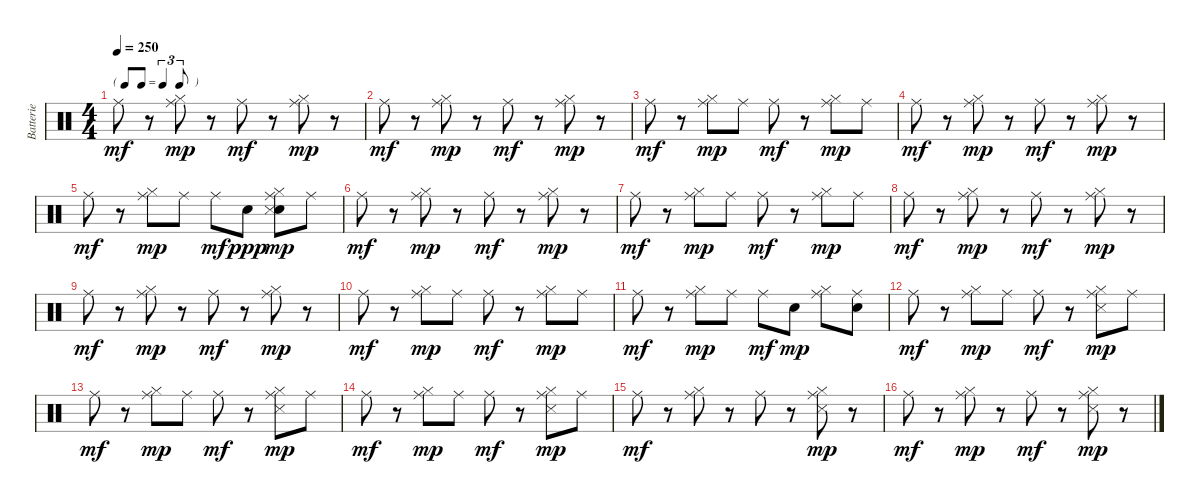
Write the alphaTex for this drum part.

\track ("Batterie" "Batterie") {instrument percussion}
\staff {score}
\articulation defaults
\ts (4 4)
\tf triplet8th
\tempo 250
\clef neutral
\ks c "Ride (middle)".8{dy mf}
r.8 ("Hi-Hat (closed)" "Ride (middle)").8{dy mp} r.8 "Ride (middle)".8{dy mf} r.8 ("Hi-Hat (closed)" "Ride (middle)").8{dy mp} r.8 |
"Ride (middle)".8{dy mf} r.8 ("Hi-Hat (closed)" "Ride (middle)").8{dy mp} r.8 "Ride (middle)".8{dy mf} r.8 ("Hi-Hat (closed)" "Ride (middle)").8{dy mp} r.8 |
"Ride (middle)".8{dy mf} r.8 ("Hi-Hat (closed)" "Ride (middle)").8{dy mp} "Ride (middle)".8 "Ride (middle)".8{dy mf} r.8 ("Hi-Hat (closed)" "Ride (middle)").8{dy mp} "Ride (middle)".8 |
"Ride (middle)".8{dy mf} r.8 ("Hi-Hat (closed)" "Ride (middle)").8{dy mp} r.8 "Ride (middle)".8{dy mf} r.8 ("Hi-Hat (closed)" "Ride (middle)").8{dy mp} r.8 |
"Ride (middle)".8{dy mf} r.8 ("Hi-Hat (closed)" "Ride (middle)").8{dy mp} "Ride (middle)".8 "Ride (middle)".8{dy mf} "Snare (hit) 2".8{dy ppp} ("Snare (hit) 2" "Hi-Hat (closed)" "Snare (side stick) 3" "Ride (middle)").8{dy mp} "Ride (middle)".8 |
"Ride (middle)".8{dy mf} r.8 ("Hi-Hat (closed)" "Ride (middle)").8{dy mp} r.8 "Ride (middle)".8{dy mf} r.8 ("Hi-Hat (closed)" "Ride (middle)").8{dy mp} r.8 |
"Ride (middle)".8{dy mf} r.8 ("Hi-Hat (closed)" "Ride (middle)").8{dy mp} "Ride (middle)".8 "Ride (middle)".8{dy mf} r.8 ("Hi-Hat (closed)" "Ride (middle)").8{dy mp} "Ride (middle)".8 |
"Ride (middle)".8{dy mf} r.8 ("Hi-Hat (closed)" "Ride (middle)").8{dy mp} r.8 "Ride (middle)".8{dy mf} r.8 ("Hi-Hat (closed)" "Ride (middle)").8{dy mp} r.8 |
"Ride (middle)".8{dy mf} r.8 ("Hi-Hat (closed)" "Ride (middle)").8{dy mp} r.8 "Ride (middle)".8{dy mf} r.8 ("Hi-Hat (closed)" "Ride (middle)").8{dy mp} r.8 |
"Ride (middle)".8{dy mf} r.8 ("Hi-Hat (closed)" "Ride (middle)").8{dy mp} "Ride (middle)".8 "Ride (middle)".8{dy mf} r.8 ("Hi-Hat (closed)" "Ride (middle)").8{dy mp} "Ride (middle)".8 |
"Ride (middle)".8{dy mf} r.8 ("Hi-Hat (closed)" "Ride (middle)").8{dy mp} "Ride (middle)".8 "Ride (middle)".8{dy mf} "Snare (hit) 2".8{dy mp} ("Hi-Hat (closed)" "Ride (middle)").8 ("Snare (hit) 2" "Ride (middle)").8 |
"Ride (middle)".8{dy mf} r.8 ("Hi-Hat (closed)" "Ride (middle)").8{dy mp} "Ride (middle)".8 "Ride (middle)".8{dy mf} r.8 ("Hi-Hat (closed)" "Snare (side stick) 3" "Ride (middle)").8{dy mp} "Ride (middle)".8 |
"Ride (middle)".8{dy mf} r.8 ("Hi-Hat (closed)" "Ride (middle)").8{dy mp} "Ride (middle)".8 "Ride (middle)".8{dy mf} r.8 ("Hi-Hat (closed)" "Snare (side stick) 3" "Ride (middle)").8{dy mp} "Ride (middle)".8 |
"Ride (middle)".8{dy mf} r.8 ("Hi-Hat (closed)" "Ride (middle)").8{dy mp} "Ride (middle)".8 "Ride (middle)".8{dy mf} r.8 ("Hi-Hat (closed)" "Snare (side stick) 3" "Ride (middle)").8{dy mp} "Ride (middle)".8 |
"Ride (middle)".8{dy mf} r.8 ("Hi-Hat (closed)" "Ride (middle)").8 r.8 "Ride (middle)".8 r.8 ("Hi-Hat (closed)" "Snare (side stick) 3" "Ride (middle)").8{dy mp} r.8 |
"Ride (middle)".8{dy mf} r.8 ("Hi-Hat (closed)" "Ride (middle)").8{dy mp} r.8 "Ride (middle)".8{dy mf} r.8 ("Hi-Hat (closed)" "Snare (side stick) 3" "Ride (middle)").8{dy mp} r.8
